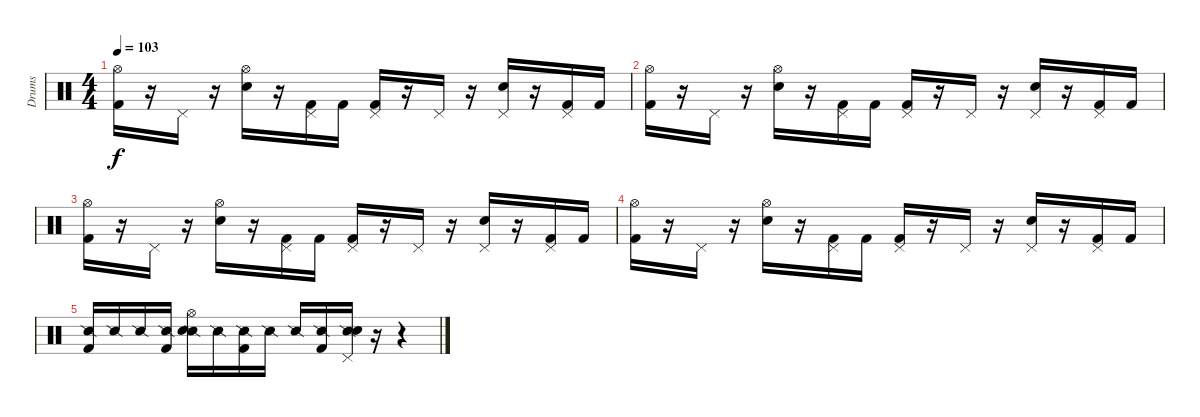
\track ("Drums" "Drums") {instrument percussion}
\staff {score}
\articulation defaults
\ts (4 4)
\tempo 103
\clef neutral
\ks c
("Hi-Hat (open)" "Kick (hit) 2").16{dy f} r.16 "Pedal Hi-Hat (hit)".16 r.16 ("Hi-Hat (open)" "Electric Snare (hit)").16 r.16 ("Pedal Hi-Hat (hit)" "Kick (hit) 2").16 "Kick (hit) 2".16 ("Pedal Hi-Hat (hit)" "Kick (hit) 2").16 r.16 "Pedal Hi-Hat (hit)".16 r.16 ("Pedal Hi-Hat (hit)" "Electric Snare (hit)").16 r.16 ("Pedal Hi-Hat (hit)" "Kick (hit) 2").16 "Kick (hit) 2".16 |
("Hi-Hat (open)" "Kick (hit) 2").16 r.16 "Pedal Hi-Hat (hit)".16 r.16 ("Hi-Hat (open)" "Electric Snare (hit)").16 r.16 ("Pedal Hi-Hat (hit)" "Kick (hit) 2").16 "Kick (hit) 2".16 ("Pedal Hi-Hat (hit)" "Kick (hit) 2").16 r.16 "Pedal Hi-Hat (hit)".16 r.16 ("Pedal Hi-Hat (hit)" "Electric Snare (hit)").16 r.16 ("Pedal Hi-Hat (hit)" "Kick (hit) 2").16 "Kick (hit) 2".16 |
("Hi-Hat (open)" "Kick (hit) 2").16 r.16 "Pedal Hi-Hat (hit)".16 r.16 ("Hi-Hat (open)" "Electric Snare (hit)").16 r.16 ("Pedal Hi-Hat (hit)" "Kick (hit) 2").16 "Kick (hit) 2".16 ("Pedal Hi-Hat (hit)" "Kick (hit) 2").16 r.16 "Pedal Hi-Hat (hit)".16 r.16 ("Pedal Hi-Hat (hit)" "Electric Snare (hit)").16 r.16 ("Pedal Hi-Hat (hit)" "Kick (hit) 2").16 "Kick (hit) 2".16 |
("Hi-Hat (open)" "Kick (hit) 2").16 r.16 "Pedal Hi-Hat (hit)".16 r.16 ("Hi-Hat (open)" "Electric Snare (hit)").16 r.16 ("Pedal Hi-Hat (hit)" "Kick (hit) 2").16 "Kick (hit) 2".16 ("Pedal Hi-Hat (hit)" "Kick (hit) 2").16 r.16 "Pedal Hi-Hat (hit)".16 r.16 ("Pedal Hi-Hat (hit)" "Electric Snare (hit)").16 r.16 ("Pedal Hi-Hat (hit)" "Kick (hit) 2").16 "Kick (hit) 2".16 |
("Snare (side stick) 2" "Kick (hit) 2").16 "Snare (side stick) 2".16 "Snare (side stick) 2".16 ("Snare (side stick) 2" "Kick (hit) 2").16 ("Hi-Hat (open)" "Snare (side stick) 2" "Electric Snare (hit)").16 "Snare (side stick) 2".16 ("Snare (side stick) 2" "Kick (hit) 2").16 "Snare (side stick) 2".16 "Snare (side stick) 2".16 ("Snare (side stick) 2" "Kick (hit) 2").16 ("Pedal Hi-Hat (hit)" "Snare (side stick) 2" "Electric Snare (hit)").16 r.16 r.4
